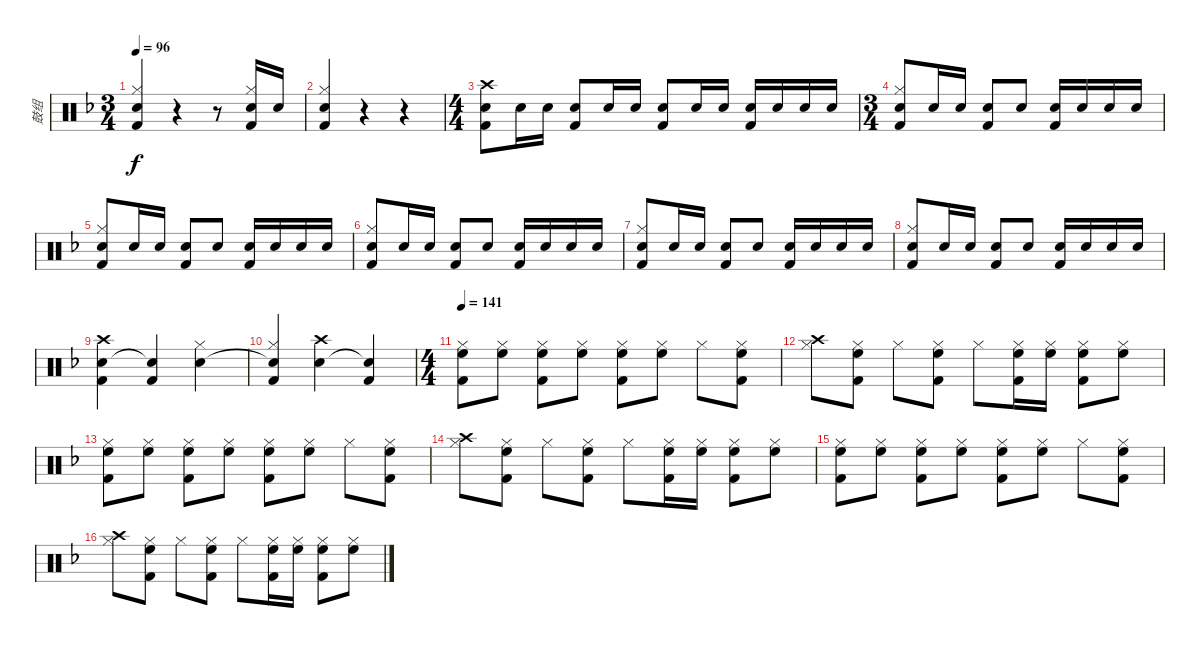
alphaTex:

\track ("鼓组" "鼓组") {instrument percussion}
\staff {score}
\articulation defaults
\ts (3 4)
\tempo 96
\clef neutral
\ks f
("Snare (hit)"{t} "Hi-Hat (closed)" "Kick (hit) 2").4{dy f} r.4 r.8 ("Snare (hit) 2" "Hi-Hat (closed)" "Kick (hit) 2").16 "Snare (hit) 2".16 |
("Snare (hit) 2" "Hi-Hat (closed)" "Kick (hit) 2").4 r.4 r.4 |
\ts (4 4)
("Snare (hit) 2" "Crash high (hit)" "Kick (hit) 2").8 "Snare (hit) 2".16 "Snare (hit) 2".16 ("Snare (hit) 2" "Kick (hit) 2").8 "Snare (hit) 2".16 "Snare (hit) 2".16 ("Snare (hit) 2" "Kick (hit) 2").8 "Snare (hit) 2".16 "Snare (hit) 2".16 ("Snare (hit) 2" "Kick (hit) 2").16 "Snare (hit) 2".16 "Snare (hit) 2".16 "Snare (hit) 2".16 |
\ts (3 4)
("Snare (hit) 2" "Hi-Hat (closed)" "Kick (hit) 2").8 "Snare (hit) 2".16 "Snare (hit) 2".16 ("Snare (hit) 2" "Kick (hit) 2").8 "Snare (hit) 2".8 ("Snare (hit) 2" "Kick (hit) 2").16 "Snare (hit) 2".16 "Snare (hit) 2".16 "Snare (hit) 2".16 |
("Snare (hit) 2" "Hi-Hat (closed)" "Kick (hit) 2").8 "Snare (hit) 2".16 "Snare (hit) 2".16 ("Snare (hit) 2" "Kick (hit) 2").8 "Snare (hit) 2".8 ("Snare (hit) 2" "Kick (hit) 2").16 "Snare (hit) 2".16 "Snare (hit) 2".16 "Snare (hit) 2".16 |
("Snare (hit) 2" "Hi-Hat (closed)" "Kick (hit) 2").8 "Snare (hit) 2".16 "Snare (hit) 2".16 ("Snare (hit) 2" "Kick (hit) 2").8 "Snare (hit) 2".8 ("Snare (hit) 2" "Kick (hit) 2").16 "Snare (hit) 2".16 "Snare (hit) 2".16 "Snare (hit) 2".16 |
("Snare (hit) 2" "Hi-Hat (closed)" "Kick (hit) 2").8 "Snare (hit) 2".16 "Snare (hit) 2".16 ("Snare (hit) 2" "Kick (hit) 2").8 "Snare (hit) 2".8 ("Snare (hit) 2" "Kick (hit) 2").16 "Snare (hit) 2".16 "Snare (hit) 2".16 "Snare (hit) 2".16 |
("Snare (hit) 2" "Hi-Hat (closed)" "Kick (hit) 2").8 "Snare (hit) 2".16 "Snare (hit) 2".16 ("Snare (hit) 2" "Kick (hit) 2").8 "Snare (hit) 2".8 ("Snare (hit) 2" "Kick (hit) 2").16 "Snare (hit) 2".16 "Snare (hit) 2".16 "Snare (hit) 2".16 |
("Snare (hit) 2" "Crash high (hit)" "Kick (hit) 2").4 ("Snare (hit)"{t} "Kick (hit) 2").4 ("Snare (hit) 2" "Hi-Hat (closed)").4 |
("Snare (hit)"{t} "Hi-Hat (closed)" "Kick (hit) 2").4 ("Snare (hit) 2" "Crash high (hit)").4 ("Snare (hit)"{t} "Kick (hit) 2").4 |
\ts (4 4)
\tempo 141
("High Floor Tom (hit)" "Hi-Hat (closed)" "Kick (hit) 2").8{volume 10} ("High Floor Tom (hit)" "Hi-Hat (closed)").8 ("High Floor Tom (hit)" "Hi-Hat (closed)" "Kick (hit) 2").8 ("High Floor Tom (hit)" "Hi-Hat (closed)").8 ("High Floor Tom (hit)" "Hi-Hat (closed)" "Kick (hit) 2").8 ("High Floor Tom (hit)" "Hi-Hat (closed)").8 "Hi-Hat (closed)".8 ("High Floor Tom (hit)" "Hi-Hat (closed)" "Kick (hit) 2").8 |
("Hi-Hat (closed)" "Crash high (hit)").8 ("High Floor Tom (hit)" "Hi-Hat (closed)" "Kick (hit) 2").8 "Hi-Hat (closed)".8 ("High Floor Tom (hit)" "Hi-Hat (closed)" "Kick (hit) 2").8 "Hi-Hat (closed)".8 ("High Floor Tom (hit)" "Hi-Hat (closed)" "Kick (hit) 2").16 ("High Floor Tom (hit)" "Hi-Hat (closed)").16 ("High Floor Tom (hit)" "Hi-Hat (closed)" "Kick (hit) 2").8 ("High Floor Tom (hit)" "Hi-Hat (closed)").8 |
("High Floor Tom (hit)" "Hi-Hat (closed)" "Kick (hit) 2").8 ("High Floor Tom (hit)" "Hi-Hat (closed)").8 ("High Floor Tom (hit)" "Hi-Hat (closed)" "Kick (hit) 2").8 ("High Floor Tom (hit)" "Hi-Hat (closed)").8 ("High Floor Tom (hit)" "Hi-Hat (closed)" "Kick (hit) 2").8 ("High Floor Tom (hit)" "Hi-Hat (closed)").8 "Hi-Hat (closed)".8 ("High Floor Tom (hit)" "Hi-Hat (closed)" "Kick (hit) 2").8 |
("Hi-Hat (closed)" "Crash high (hit)").8 ("High Floor Tom (hit)" "Hi-Hat (closed)" "Kick (hit) 2").8 "Hi-Hat (closed)".8 ("High Floor Tom (hit)" "Hi-Hat (closed)" "Kick (hit) 2").8 "Hi-Hat (closed)".8 ("High Floor Tom (hit)" "Hi-Hat (closed)" "Kick (hit) 2").16 ("High Floor Tom (hit)" "Hi-Hat (closed)").16 ("High Floor Tom (hit)" "Hi-Hat (closed)" "Kick (hit) 2").8 ("High Floor Tom (hit)" "Hi-Hat (closed)").8 |
("High Floor Tom (hit)" "Hi-Hat (closed)" "Kick (hit) 2").8 ("High Floor Tom (hit)" "Hi-Hat (closed)").8 ("High Floor Tom (hit)" "Hi-Hat (closed)" "Kick (hit) 2").8 ("High Floor Tom (hit)" "Hi-Hat (closed)").8 ("High Floor Tom (hit)" "Hi-Hat (closed)" "Kick (hit) 2").8 ("High Floor Tom (hit)" "Hi-Hat (closed)").8 "Hi-Hat (closed)".8 ("High Floor Tom (hit)" "Hi-Hat (closed)" "Kick (hit) 2").8 |
("Hi-Hat (closed)" "Crash high (hit)").8 ("High Floor Tom (hit)" "Hi-Hat (closed)" "Kick (hit) 2").8 "Hi-Hat (closed)".8 ("High Floor Tom (hit)" "Hi-Hat (closed)" "Kick (hit) 2").8 "Hi-Hat (closed)".8 ("High Floor Tom (hit)" "Hi-Hat (closed)" "Kick (hit) 2").16 ("High Floor Tom (hit)" "Hi-Hat (closed)").16 ("High Floor Tom (hit)" "Hi-Hat (closed)" "Kick (hit) 2").8 ("High Floor Tom (hit)" "Hi-Hat (closed)").8
